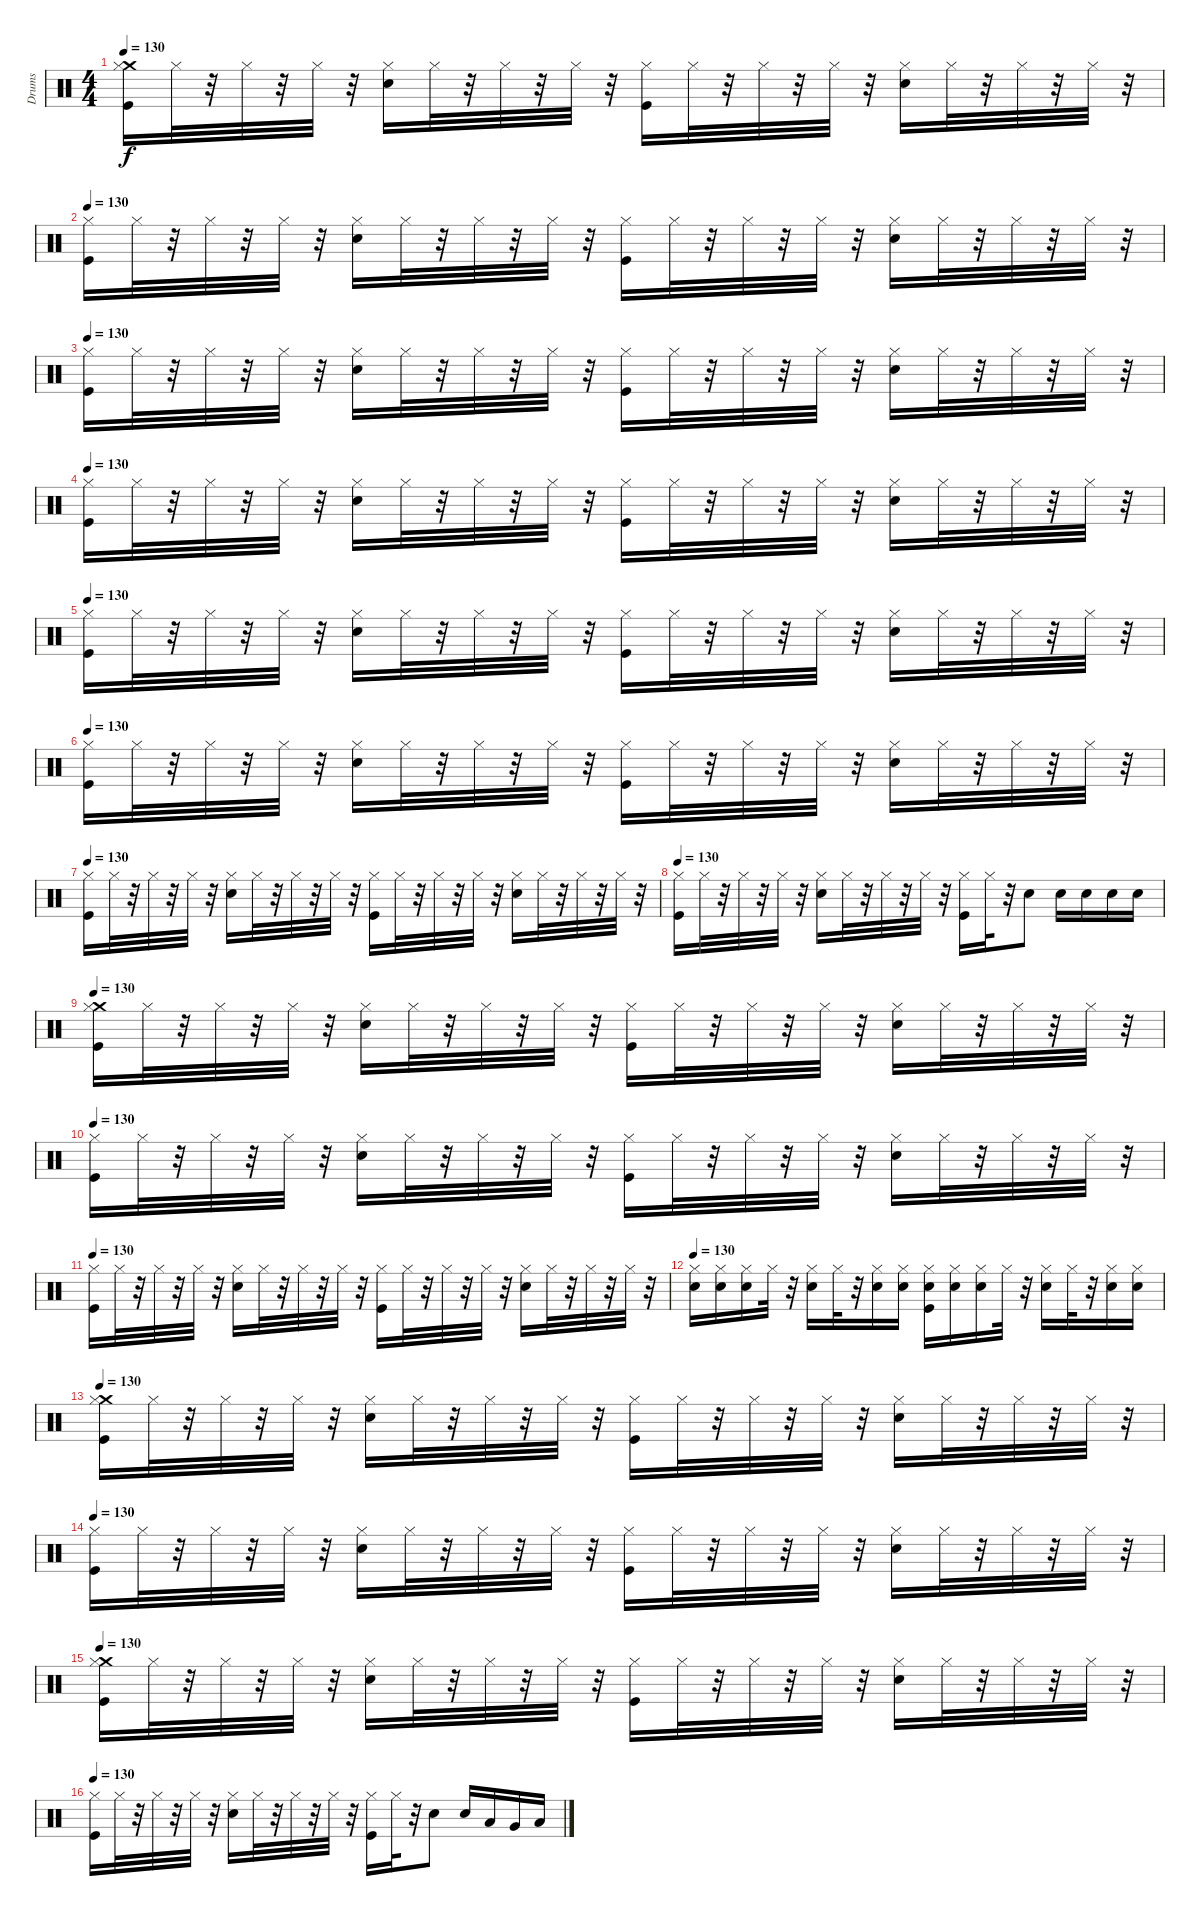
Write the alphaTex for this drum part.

\track ("Drums" "Drums") {instrument percussion}
\staff {score}
\articulation defaults
\ts (4 4)
\tempo 130
\clef neutral
\ks c
("Crash medium (hit)" "Hi-Hat (closed)" "Kick (hit)").16{dy f} "Hi-Hat (closed)".32 r.32 "Hi-Hat (closed)".32 r.32 "Hi-Hat (closed)".32 r.32 ("Hi-Hat (closed)" "Snare (hit) 2").16 "Hi-Hat (closed)".32 r.32 "Hi-Hat (closed)".32 r.32 "Hi-Hat (closed)".32 r.32 ("Hi-Hat (closed)" "Kick (hit)").16 "Hi-Hat (closed)".32 r.32 "Hi-Hat (closed)".32 r.32 "Hi-Hat (closed)".32 r.32 ("Hi-Hat (closed)" "Snare (hit) 2").16 "Hi-Hat (closed)".32 r.32 "Hi-Hat (closed)".32 r.32 "Hi-Hat (closed)".32 r.32 |
\tempo 130
("Hi-Hat (closed)" "Kick (hit)").16 "Hi-Hat (closed)".32 r.32 "Hi-Hat (closed)".32 r.32 "Hi-Hat (closed)".32 r.32 ("Hi-Hat (closed)" "Snare (hit) 2").16 "Hi-Hat (closed)".32 r.32 "Hi-Hat (closed)".32 r.32 "Hi-Hat (closed)".32 r.32 ("Hi-Hat (closed)" "Kick (hit)").16 "Hi-Hat (closed)".32 r.32 "Hi-Hat (closed)".32 r.32 "Hi-Hat (closed)".32 r.32 ("Hi-Hat (closed)" "Snare (hit) 2").16 "Hi-Hat (closed)".32 r.32 "Hi-Hat (closed)".32 r.32 "Hi-Hat (closed)".32 r.32 |
\tempo 130
("Hi-Hat (closed)" "Kick (hit)").16 "Hi-Hat (closed)".32 r.32 "Hi-Hat (closed)".32 r.32 "Hi-Hat (closed)".32 r.32 ("Hi-Hat (closed)" "Snare (hit) 2").16 "Hi-Hat (closed)".32 r.32 "Hi-Hat (closed)".32 r.32 "Hi-Hat (closed)".32 r.32 ("Hi-Hat (closed)" "Kick (hit)").16 "Hi-Hat (closed)".32 r.32 "Hi-Hat (closed)".32 r.32 "Hi-Hat (closed)".32 r.32 ("Hi-Hat (closed)" "Snare (hit) 2").16 "Hi-Hat (closed)".32 r.32 "Hi-Hat (closed)".32 r.32 "Hi-Hat (closed)".32 r.32 |
\tempo 130
("Hi-Hat (closed)" "Kick (hit)").16 "Hi-Hat (closed)".32 r.32 "Hi-Hat (closed)".32 r.32 "Hi-Hat (closed)".32 r.32 ("Hi-Hat (closed)" "Snare (hit) 2").16 "Hi-Hat (closed)".32 r.32 "Hi-Hat (closed)".32 r.32 "Hi-Hat (closed)".32 r.32 ("Hi-Hat (closed)" "Kick (hit)").16 "Hi-Hat (closed)".32 r.32 "Hi-Hat (closed)".32 r.32 "Hi-Hat (closed)".32 r.32 ("Hi-Hat (closed)" "Snare (hit) 2").16 "Hi-Hat (closed)".32 r.32 "Hi-Hat (closed)".32 r.32 "Hi-Hat (closed)".32 r.32 |
\tempo 130
("Hi-Hat (closed)" "Kick (hit)").16 "Hi-Hat (closed)".32 r.32 "Hi-Hat (closed)".32 r.32 "Hi-Hat (closed)".32 r.32 ("Hi-Hat (closed)" "Snare (hit) 2").16 "Hi-Hat (closed)".32 r.32 "Hi-Hat (closed)".32 r.32 "Hi-Hat (closed)".32 r.32 ("Hi-Hat (closed)" "Kick (hit)").16 "Hi-Hat (closed)".32 r.32 "Hi-Hat (closed)".32 r.32 "Hi-Hat (closed)".32 r.32 ("Hi-Hat (closed)" "Snare (hit) 2").16 "Hi-Hat (closed)".32 r.32 "Hi-Hat (closed)".32 r.32 "Hi-Hat (closed)".32 r.32 |
\tempo 130
("Hi-Hat (closed)" "Kick (hit)").16 "Hi-Hat (closed)".32 r.32 "Hi-Hat (closed)".32 r.32 "Hi-Hat (closed)".32 r.32 ("Hi-Hat (closed)" "Snare (hit) 2").16 "Hi-Hat (closed)".32 r.32 "Hi-Hat (closed)".32 r.32 "Hi-Hat (closed)".32 r.32 ("Hi-Hat (closed)" "Kick (hit)").16 "Hi-Hat (closed)".32 r.32 "Hi-Hat (closed)".32 r.32 "Hi-Hat (closed)".32 r.32 ("Hi-Hat (closed)" "Snare (hit) 2").16 "Hi-Hat (closed)".32 r.32 "Hi-Hat (closed)".32 r.32 "Hi-Hat (closed)".32 r.32 |
\tempo 130
("Hi-Hat (closed)" "Kick (hit)").16 "Hi-Hat (closed)".32 r.32 "Hi-Hat (closed)".32 r.32 "Hi-Hat (closed)".32 r.32 ("Hi-Hat (closed)" "Snare (hit) 2").16 "Hi-Hat (closed)".32 r.32 "Hi-Hat (closed)".32 r.32 "Hi-Hat (closed)".32 r.32 ("Hi-Hat (closed)" "Kick (hit)").16 "Hi-Hat (closed)".32 r.32 "Hi-Hat (closed)".32 r.32 "Hi-Hat (closed)".32 r.32 ("Hi-Hat (closed)" "Snare (hit) 2").16 "Hi-Hat (closed)".32 r.32 "Hi-Hat (closed)".32 r.32 "Hi-Hat (closed)".32 r.32 |
\tempo 130
("Kick (hit)" "Hi-Hat (closed)").16 "Hi-Hat (closed)".32 r.32 "Hi-Hat (closed)".32 r.32 "Hi-Hat (closed)".32 r.32 ("Hi-Hat (closed)" "Snare (hit) 2").16 "Hi-Hat (closed)".32 r.32 "Hi-Hat (closed)".32 r.32 "Hi-Hat (closed)".32 r.32 ("Hi-Hat (closed)" "Kick (hit)").16 "Hi-Hat (closed)".32 r.32 "Snare (hit) 2".8 "Snare (hit) 2".16 "Snare (hit) 2".16 "Snare (hit) 2".16 "Snare (hit) 2".16 |
\tempo 130
("Crash medium (hit)" "Hi-Hat (closed)" "Kick (hit)").16 "Hi-Hat (closed)".32 r.32 "Hi-Hat (closed)".32 r.32 "Hi-Hat (closed)".32 r.32 ("Hi-Hat (closed)" "Snare (hit) 2").16 "Hi-Hat (closed)".32 r.32 "Hi-Hat (closed)".32 r.32 "Hi-Hat (closed)".32 r.32 ("Hi-Hat (closed)" "Kick (hit)").16 "Hi-Hat (closed)".32 r.32 "Hi-Hat (closed)".32 r.32 "Hi-Hat (closed)".32 r.32 ("Hi-Hat (closed)" "Snare (hit) 2").16 "Hi-Hat (closed)".32 r.32 "Hi-Hat (closed)".32 r.32 "Hi-Hat (closed)".32 r.32 |
\tempo 130
("Hi-Hat (closed)" "Kick (hit)").16 "Hi-Hat (closed)".32 r.32 "Hi-Hat (closed)".32 r.32 "Hi-Hat (closed)".32 r.32 ("Hi-Hat (closed)" "Snare (hit) 2").16 "Hi-Hat (closed)".32 r.32 "Hi-Hat (closed)".32 r.32 "Hi-Hat (closed)".32 r.32 ("Hi-Hat (closed)" "Kick (hit)").16 "Hi-Hat (closed)".32 r.32 "Hi-Hat (closed)".32 r.32 "Hi-Hat (closed)".32 r.32 ("Hi-Hat (closed)" "Snare (hit) 2").16 "Hi-Hat (closed)".32 r.32 "Hi-Hat (closed)".32 r.32 "Hi-Hat (closed)".32 r.32 |
\tempo 130
("Hi-Hat (closed)" "Kick (hit)").16 "Hi-Hat (closed)".32 r.32 "Hi-Hat (closed)".32 r.32 "Hi-Hat (closed)".32 r.32 ("Hi-Hat (closed)" "Snare (hit) 2").16 "Hi-Hat (closed)".32 r.32 "Hi-Hat (closed)".32 r.32 "Hi-Hat (closed)".32 r.32 ("Hi-Hat (closed)" "Kick (hit)").16 "Hi-Hat (closed)".32 r.32 "Hi-Hat (closed)".32 r.32 "Hi-Hat (closed)".32 r.32 ("Hi-Hat (closed)" "Snare (hit) 2").16 "Hi-Hat (closed)".32 r.32 "Hi-Hat (closed)".32 r.32 "Hi-Hat (closed)".32 r.32 |
\tempo 130
("Hi-Hat (closed)" "Snare (hit) 2").16 ("Electric Snare (hit)" "Hi-Hat (closed)").16 ("Snare (hit) 2" "Hi-Hat (closed)").16 "Hi-Hat (closed)".32 r.32 ("Snare (hit) 2" "Hi-Hat (closed)").16 "Hi-Hat (closed)".32 r.32 ("Snare (hit) 2" "Hi-Hat (closed)").16 ("Snare (hit) 2" "Hi-Hat (closed)").16 ("Snare (hit) 2" "Hi-Hat (closed)" "Kick (hit)").16 ("Snare (hit) 2" "Hi-Hat (closed)").16 ("Snare (hit) 2" "Hi-Hat (closed)").16 "Hi-Hat (closed)".32 r.32 ("Snare (hit) 2" "Hi-Hat (closed)").16 "Hi-Hat (closed)".32 r.32 ("Snare (hit) 2" "Hi-Hat (closed)").16 ("Snare (hit) 2" "Hi-Hat (closed)").16 |
\tempo 130
("Crash medium (hit)" "Hi-Hat (closed)" "Kick (hit)").16 "Hi-Hat (closed)".32 r.32 "Hi-Hat (closed)".32 r.32 "Hi-Hat (closed)".32 r.32 ("Hi-Hat (closed)" "Snare (hit) 2").16 "Hi-Hat (closed)".32 r.32 "Hi-Hat (closed)".32 r.32 "Hi-Hat (closed)".32 r.32 ("Hi-Hat (closed)" "Kick (hit)").16 "Hi-Hat (closed)".32 r.32 "Hi-Hat (closed)".32 r.32 "Hi-Hat (closed)".32 r.32 ("Hi-Hat (closed)" "Snare (hit) 2").16 "Hi-Hat (closed)".32 r.32 "Hi-Hat (closed)".32 r.32 "Hi-Hat (closed)".32 r.32 |
\tempo 130
("Hi-Hat (closed)" "Kick (hit)").16 "Hi-Hat (closed)".32 r.32 "Hi-Hat (closed)".32 r.32 "Hi-Hat (closed)".32 r.32 ("Hi-Hat (closed)" "Snare (hit) 2").16 "Hi-Hat (closed)".32 r.32 "Hi-Hat (closed)".32 r.32 "Hi-Hat (closed)".32 r.32 ("Hi-Hat (closed)" "Kick (hit)").16 "Hi-Hat (closed)".32 r.32 "Hi-Hat (closed)".32 r.32 "Hi-Hat (closed)".32 r.32 ("Hi-Hat (closed)" "Snare (hit) 2").16 "Hi-Hat (closed)".32 r.32 "Hi-Hat (closed)".32 r.32 "Hi-Hat (closed)".32 r.32 |
\tempo 130
("Crash medium (hit)" "Hi-Hat (closed)" "Kick (hit)").16 "Hi-Hat (closed)".32 r.32 "Hi-Hat (closed)".32 r.32 "Hi-Hat (closed)".32 r.32 ("Hi-Hat (closed)" "Snare (hit) 2").16 "Hi-Hat (closed)".32 r.32 "Hi-Hat (closed)".32 r.32 "Hi-Hat (closed)".32 r.32 ("Hi-Hat (closed)" "Kick (hit)").16 "Hi-Hat (closed)".32 r.32 "Hi-Hat (closed)".32 r.32 "Hi-Hat (closed)".32 r.32 ("Hi-Hat (closed)" "Snare (hit) 2").16 "Hi-Hat (closed)".32 r.32 "Hi-Hat (closed)".32 r.32 "Hi-Hat (closed)".32 r.32 |
\tempo 130
("Kick (hit)" "Hi-Hat (closed)").16 "Hi-Hat (closed)".32 r.32 "Hi-Hat (closed)".32 r.32 "Hi-Hat (closed)".32 r.32 ("Snare (hit) 2" "Hi-Hat (closed)").16 "Hi-Hat (closed)".32 r.32 "Hi-Hat (closed)".32 r.32 "Hi-Hat (closed)".32 r.32 ("Kick (hit)" "Hi-Hat (closed)").16 "Hi-Hat (closed)".32 r.32 "Snare (hit) 2".8 "Snare (hit) 2".16 "Low Tom (hit)".16 "Very Low Tom (hit)".16 "Low Floor Tom (hit)".16
